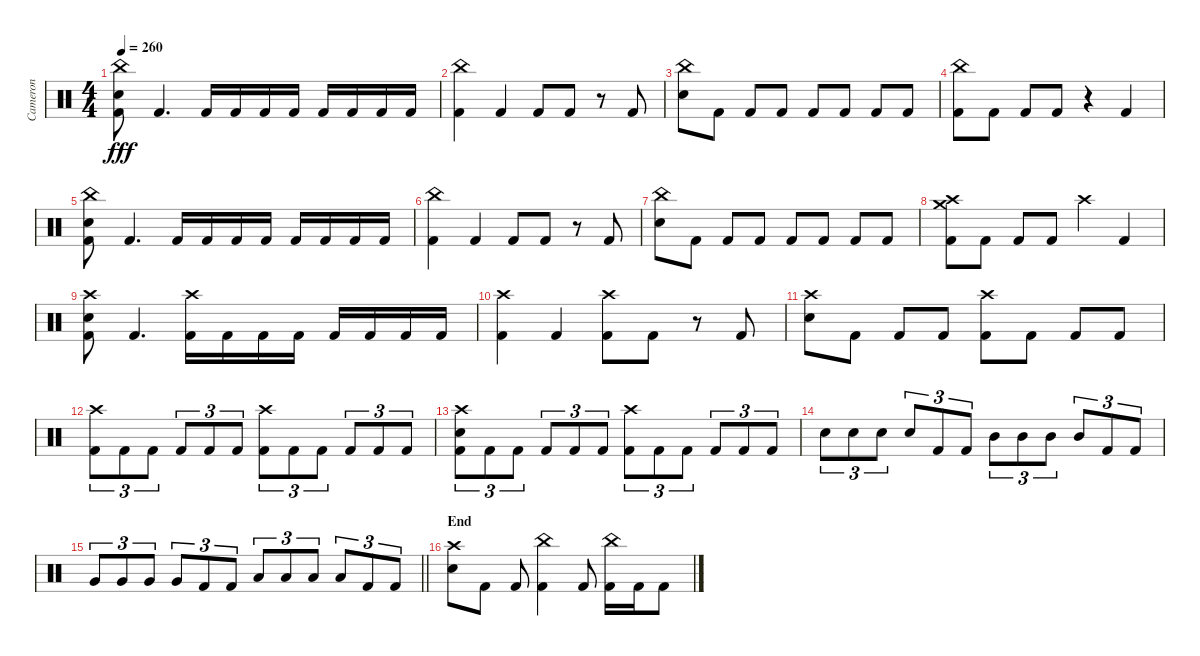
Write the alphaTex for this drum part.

\track ("Cameron" "Cameron") {instrument percussion}
\staff {score}
\articulation defaults
\ts (4 4)
\tempo 260
\clef neutral
\ks c
("China (hit)" "Electric Snare (hit)" "Kick (hit) 2").8{dy fff} "Kick (hit) 2".4{d} "Kick (hit) 2".16 "Kick (hit) 2".16 "Kick (hit) 2".16 "Kick (hit) 2".16 "Kick (hit) 2".16 "Kick (hit) 2".16 "Kick (hit) 2".16 "Kick (hit) 2".16 |
("China (hit)" "Kick (hit) 2").4 "Kick (hit) 2".4 "Kick (hit) 2".8 "Kick (hit) 2".8 r.8 "Kick (hit) 2".8 |
("China (hit)" "Electric Snare (hit)").8 "Kick (hit) 2".8 "Kick (hit) 2".8 "Kick (hit) 2".8 "Kick (hit) 2".8 "Kick (hit) 2".8 "Kick (hit) 2".8 "Kick (hit) 2".8 |
("China (hit)" "Kick (hit) 2").8 "Kick (hit) 2".8 "Kick (hit) 2".8 "Kick (hit) 2".8 r.4 "Kick (hit) 2".4 |
("China (hit)" "Electric Snare (hit)" "Kick (hit) 2").8 "Kick (hit) 2".4{d} "Kick (hit) 2".16 "Kick (hit) 2".16 "Kick (hit) 2".16 "Kick (hit) 2".16 "Kick (hit) 2".16 "Kick (hit) 2".16 "Kick (hit) 2".16 "Kick (hit) 2".16 |
("China (hit)" "Kick (hit) 2").4 "Kick (hit) 2".4 "Kick (hit) 2".8 "Kick (hit) 2".8 r.8 "Kick (hit) 2".8 |
("China (hit)" "Electric Snare (hit)").8 "Kick (hit) 2".8 "Kick (hit) 2".8 "Kick (hit) 2".8 "Kick (hit) 2".8 "Kick (hit) 2".8 "Kick (hit) 2".8 "Kick (hit) 2".8 |
("Crash high (hit)" "Crash medium (hit)" "Kick (hit) 2").8 "Kick (hit) 2".8 "Kick (hit) 2".8 "Kick (hit) 2".8 "Crash high (hit)".4 "Kick (hit) 2".4 |
("Crash high (hit)" "Electric Snare (hit)" "Kick (hit) 2").8 "Kick (hit) 2".4{d} ("Crash high (hit)" "Kick (hit) 2").16 "Kick (hit) 2".16 "Kick (hit) 2".16 "Kick (hit) 2".16 "Kick (hit) 2".16 "Kick (hit) 2".16 "Kick (hit) 2".16 "Kick (hit) 2".16 |
("Crash high (hit)" "Kick (hit) 2").4 "Kick (hit) 2".4 ("Crash high (hit)" "Kick (hit) 2").8 "Kick (hit) 2".8 r.8 "Kick (hit) 2".8 |
("Crash high (hit)" "Electric Snare (hit)").8 "Kick (hit) 2".8 "Kick (hit) 2".8 "Kick (hit) 2".8 ("Crash high (hit)" "Kick (hit) 2").8 "Kick (hit) 2".8 "Kick (hit) 2".8 "Kick (hit) 2".8 |
("Crash high (hit)" "Kick (hit) 2").8{tu (3 2)} "Kick (hit) 2".8{tu (3 2)} "Kick (hit) 2".8{tu (3 2)} "Kick (hit) 2".8{tu (3 2)} "Kick (hit) 2".8{tu (3 2)} "Kick (hit) 2".8{tu (3 2)} ("Crash high (hit)" "Kick (hit) 2").8{tu (3 2)} "Kick (hit) 2".8{tu (3 2)} "Kick (hit) 2".8{tu (3 2)} "Kick (hit) 2".8{tu (3 2)} "Kick (hit) 2".8{tu (3 2)} "Kick (hit) 2".8{tu (3 2)} |
("Crash high (hit)" "Electric Snare (hit)" "Kick (hit) 2").8{tu (3 2)} "Kick (hit) 2".8{tu (3 2)} "Kick (hit) 2".8{tu (3 2)} "Kick (hit) 2".8{tu (3 2)} "Kick (hit) 2".8{tu (3 2)} "Kick (hit) 2".8{tu (3 2)} ("Crash high (hit)" "Kick (hit) 2").8{tu (3 2)} "Kick (hit) 2".8{tu (3 2)} "Kick (hit) 2".8{tu (3 2)} "Kick (hit) 2".8{tu (3 2)} "Kick (hit) 2".8{tu (3 2)} "Kick (hit) 2".8{tu (3 2)} |
"Electric Snare (hit)".8{tu (3 2)} "Electric Snare (hit)".8{tu (3 2)} "Electric Snare (hit)".8{tu (3 2)} "Electric Snare (hit)".8{tu (3 2)} "Kick (hit) 2".8{tu (3 2)} "Kick (hit) 2".8{tu (3 2)} "Mid Tom (hit)".8{tu (3 2)} "Mid Tom (hit)".8{tu (3 2)} "Mid Tom (hit)".8{tu (3 2)} "Mid Tom (hit)".8{tu (3 2)} "Kick (hit) 2".8{tu (3 2)} "Kick (hit) 2".8{tu (3 2)} |
\barLineRight lightlight "Very Low Tom (hit)".8{tu (3 2)} "Very Low Tom (hit)".8{tu (3 2)} "Very Low Tom (hit)".8{tu (3 2)} "Very Low Tom (hit)".8{tu (3 2)} "Kick (hit) 2".8{tu (3 2)} "Kick (hit) 2".8{tu (3 2)} "Low Floor Tom (hit)".8{tu (3 2)} "Low Floor Tom (hit)".8{tu (3 2)} "Low Floor Tom (hit)".8{tu (3 2)} "Low Floor Tom (hit)".8{tu (3 2)} "Kick (hit) 2".8{tu (3 2)} "Kick (hit) 2".8{tu (3 2)}
|
\section ("" "End")
("Crash high (hit)" "Electric Snare (hit)").8 "Kick (hit) 2".8 "Kick (hit) 2".8 ("China (hit)" "Kick (hit) 2").4 "Kick (hit) 2".8 ("China (hit)" "Kick (hit) 2").16 "Kick (hit) 2".16 "Kick (hit) 2".8
